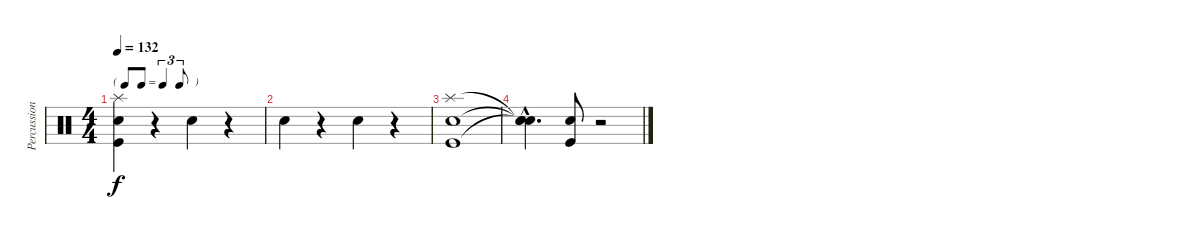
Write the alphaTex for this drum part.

\track ("Percussions" "Percussion") {instrument percussion}
\staff {score}
\articulation defaults
\ts (4 4)
\tf triplet8th
\tempo 132
\clef neutral
\ks c
("Snare (hit) 2" "Kick (hit)" "Splash (hit)").4{dy f} r.4 "Snare (hit) 2".4 r.4 |
"Snare (hit) 2".4 r.4 "Snare (hit) 2".4 r.4 |
("Splash (hit)" "Snare (hit) 2" "Kick (hit)").1 |
("Snare (hit)"{hac t} "Snare (hit)"{hac t} "Snare (hit)"{hac t}).4{d} ("Snare (hit) 2" "Kick (hit)").8 r.2
